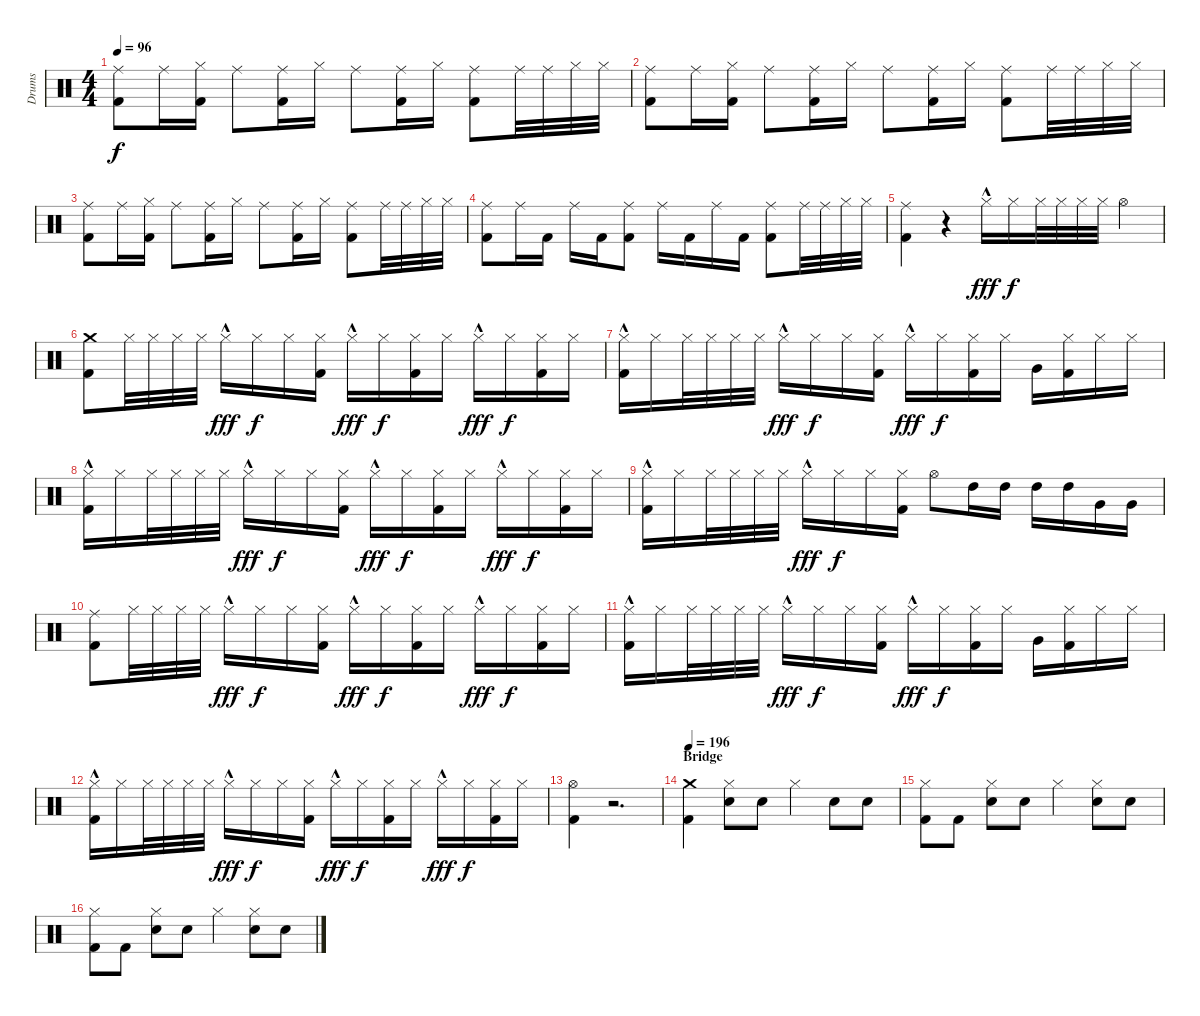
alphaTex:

\track ("Drums" "Drums") {instrument percussion}
\staff {score}
\articulation defaults
\ts (4 4)
\tempo 96
\clef neutral
\ks c
("Ride (middle)" "Kick (hit) 2").8{dy f} "Ride (middle)".16 ("Hi-Hat (closed)" "Kick (hit) 2").16 "Ride (middle)".8 ("Ride (middle)" "Kick (hit) 2").16 "Hi-Hat (closed)".16 "Ride (middle)".8 ("Ride (middle)" "Kick (hit) 2").16 "Hi-Hat (closed)".16 ("Ride (middle)" "Kick (hit) 2").8 "Ride (middle)".32 "Ride (middle)".32 "Hi-Hat (closed)".32 "Hi-Hat (closed)".32 |
("Ride (middle)" "Kick (hit) 2").8 "Ride (middle)".16 ("Hi-Hat (closed)" "Kick (hit) 2").16 "Ride (middle)".8 ("Ride (middle)" "Kick (hit) 2").16 "Hi-Hat (closed)".16 "Ride (middle)".8 ("Ride (middle)" "Kick (hit) 2").16 "Hi-Hat (closed)".16 ("Ride (middle)" "Kick (hit) 2").8 "Ride (middle)".32 "Ride (middle)".32 "Hi-Hat (closed)".32 "Hi-Hat (closed)".32 |
("Ride (middle)" "Kick (hit) 2").8 "Ride (middle)".16 ("Hi-Hat (closed)" "Kick (hit) 2").16 "Ride (middle)".8 ("Ride (middle)" "Kick (hit) 2").16 "Hi-Hat (closed)".16 "Ride (middle)".8 ("Ride (middle)" "Kick (hit) 2").16 "Hi-Hat (closed)".16 ("Ride (middle)" "Kick (hit) 2").8 "Ride (middle)".32 "Ride (middle)".32 "Hi-Hat (closed)".32 "Hi-Hat (closed)".32 |
("Ride (middle)" "Kick (hit) 2").8 "Ride (middle)".16 "Kick (hit) 2".16 "Ride (middle)".16 "Kick (hit) 2".16 ("Ride (middle)" "Kick (hit) 2").8 "Ride (middle)".16 "Kick (hit) 2".16 "Ride (middle)".16 "Kick (hit) 2".16 ("Ride (middle)" "Kick (hit) 2").8 "Ride (middle)".32 "Ride (middle)".32 "Hi-Hat (closed)".32 "Hi-Hat (closed)".32 |
("Ride (middle)" "Kick (hit) 2").4 r.4 "Hi-Hat (closed)"{hac}.16{dy fff} "Hi-Hat (closed)".16{dy f} "Hi-Hat (closed)".32 "Hi-Hat (closed)".32 "Hi-Hat (closed)".32 "Hi-Hat (closed)".32 "Hi-Hat (open)".4 |
("Crash medium (hit)" "Kick (hit) 2").8 "Hi-Hat (closed)".32 "Hi-Hat (closed)".32 "Hi-Hat (closed)".32 "Hi-Hat (closed)".32 "Hi-Hat (closed)"{hac}.16{dy fff} "Hi-Hat (closed)".16{dy f} "Hi-Hat (closed)".16 ("Hi-Hat (closed)" "Kick (hit) 2").16 "Hi-Hat (closed)"{hac}.16{dy fff} "Hi-Hat (closed)".16{dy f} ("Hi-Hat (closed)" "Kick (hit) 2").16 "Hi-Hat (closed)".16 "Hi-Hat (closed)"{hac}.16{dy fff} "Hi-Hat (closed)".16{dy f} ("Hi-Hat (closed)" "Kick (hit) 2").16 "Hi-Hat (closed)".16 |
("Hi-Hat (closed)"{hac} "Kick (hit) 2").16 "Hi-Hat (closed)".16 "Hi-Hat (closed)".32 "Hi-Hat (closed)".32 "Hi-Hat (closed)".32 "Hi-Hat (closed)".32 "Hi-Hat (closed)"{hac}.16{dy fff} "Hi-Hat (closed)".16{dy f} "Hi-Hat (closed)".16 ("Hi-Hat (closed)" "Kick (hit) 2").16 "Hi-Hat (closed)"{hac}.16{dy fff} "Hi-Hat (closed)".16{dy f} ("Hi-Hat (closed)" "Kick (hit) 2").16 "Hi-Hat (closed)".16 "Very Low Tom (hit)".16 ("Hi-Hat (closed)" "Kick (hit) 2").16 "Hi-Hat (closed)".16 "Hi-Hat (closed)".16 |
("Hi-Hat (closed)"{hac} "Kick (hit) 2").16 "Hi-Hat (closed)".16 "Hi-Hat (closed)".32 "Hi-Hat (closed)".32 "Hi-Hat (closed)".32 "Hi-Hat (closed)".32 "Hi-Hat (closed)"{hac}.16{dy fff} "Hi-Hat (closed)".16{dy f} "Hi-Hat (closed)".16 ("Hi-Hat (closed)" "Kick (hit) 2").16 "Hi-Hat (closed)"{hac}.16{dy fff} "Hi-Hat (closed)".16{dy f} ("Hi-Hat (closed)" "Kick (hit) 2").16 "Hi-Hat (closed)".16 "Hi-Hat (closed)"{hac}.16{dy fff} "Hi-Hat (closed)".16{dy f} ("Hi-Hat (closed)" "Kick (hit) 2").16 "Hi-Hat (closed)".16 |
("Hi-Hat (closed)"{hac} "Kick (hit) 2").16 "Hi-Hat (closed)".16 "Hi-Hat (closed)".32 "Hi-Hat (closed)".32 "Hi-Hat (closed)".32 "Hi-Hat (closed)".32 "Hi-Hat (closed)"{hac}.16{dy fff} "Hi-Hat (closed)".16{dy f} "Hi-Hat (closed)".16 ("Hi-Hat (closed)" "Kick (hit) 2").16 "Hi-Hat (open)".8 "High Tom (hit)".16 "High Tom (hit)".16 "High Tom (hit)".16 "High Tom (hit)".16 "Very Low Tom (hit)".16 "Very Low Tom (hit)".16 |
("Ride (middle)" "Kick (hit) 2").8 "Hi-Hat (closed)".32 "Hi-Hat (closed)".32 "Hi-Hat (closed)".32 "Hi-Hat (closed)".32 "Hi-Hat (closed)"{hac}.16{dy fff} "Hi-Hat (closed)".16{dy f} "Hi-Hat (closed)".16 ("Hi-Hat (closed)" "Kick (hit) 2").16 "Hi-Hat (closed)"{hac}.16{dy fff} "Hi-Hat (closed)".16{dy f} ("Hi-Hat (closed)" "Kick (hit) 2").16 "Hi-Hat (closed)".16 "Hi-Hat (closed)"{hac}.16{dy fff} "Hi-Hat (closed)".16{dy f} ("Hi-Hat (closed)" "Kick (hit) 2").16 "Hi-Hat (closed)".16 |
("Hi-Hat (closed)"{hac} "Kick (hit) 2").16 "Hi-Hat (closed)".16 "Hi-Hat (closed)".32 "Hi-Hat (closed)".32 "Hi-Hat (closed)".32 "Hi-Hat (closed)".32 "Hi-Hat (closed)"{hac}.16{dy fff} "Hi-Hat (closed)".16{dy f} "Hi-Hat (closed)".16 ("Hi-Hat (closed)" "Kick (hit) 2").16 "Hi-Hat (closed)"{hac}.16{dy fff} "Hi-Hat (closed)".16{dy f} ("Hi-Hat (closed)" "Kick (hit) 2").16 "Hi-Hat (closed)".16 "Very Low Tom (hit)".16 ("Hi-Hat (closed)" "Kick (hit) 2").16 "Hi-Hat (closed)".16 "Hi-Hat (closed)".16 |
("Hi-Hat (closed)"{hac} "Kick (hit) 2").16 "Hi-Hat (closed)".16 "Hi-Hat (closed)".32 "Hi-Hat (closed)".32 "Hi-Hat (closed)".32 "Hi-Hat (closed)".32 "Hi-Hat (closed)"{hac}.16{dy fff} "Hi-Hat (closed)".16{dy f} "Hi-Hat (closed)".16 ("Hi-Hat (closed)" "Kick (hit) 2").16 "Hi-Hat (closed)"{hac}.16{dy fff} "Hi-Hat (closed)".16{dy f} ("Hi-Hat (closed)" "Kick (hit) 2").16 "Hi-Hat (closed)".16 "Hi-Hat (closed)"{hac}.16{dy fff} "Hi-Hat (closed)".16{dy f} ("Hi-Hat (closed)" "Kick (hit) 2").16 "Hi-Hat (closed)".16 |
("Hi-Hat (open)" "Kick (hit) 2").4 r.2{d} |
\section ("" "Bridge")
\tempo 196
("Crash medium (hit)" "Kick (hit) 2").4 ("Hi-Hat (closed)" "Snare (hit) 2").8 "Snare (hit) 2".8 "Hi-Hat (closed)".4 "Snare (hit) 2".8 "Snare (hit) 2".8 |
("Hi-Hat (closed)" "Kick (hit) 2").8 "Kick (hit) 2".8 ("Hi-Hat (closed)" "Snare (hit) 2").8 "Snare (hit) 2".8 "Hi-Hat (closed)".4 ("Hi-Hat (closed)" "Snare (hit) 2").8 "Snare (hit) 2".8 |
("Hi-Hat (closed)" "Kick (hit) 2").8 "Kick (hit) 2".8 ("Hi-Hat (closed)" "Snare (hit) 2").8 "Snare (hit) 2".8 "Hi-Hat (closed)".4 ("Hi-Hat (closed)" "Snare (hit) 2").8 "Snare (hit) 2".8
